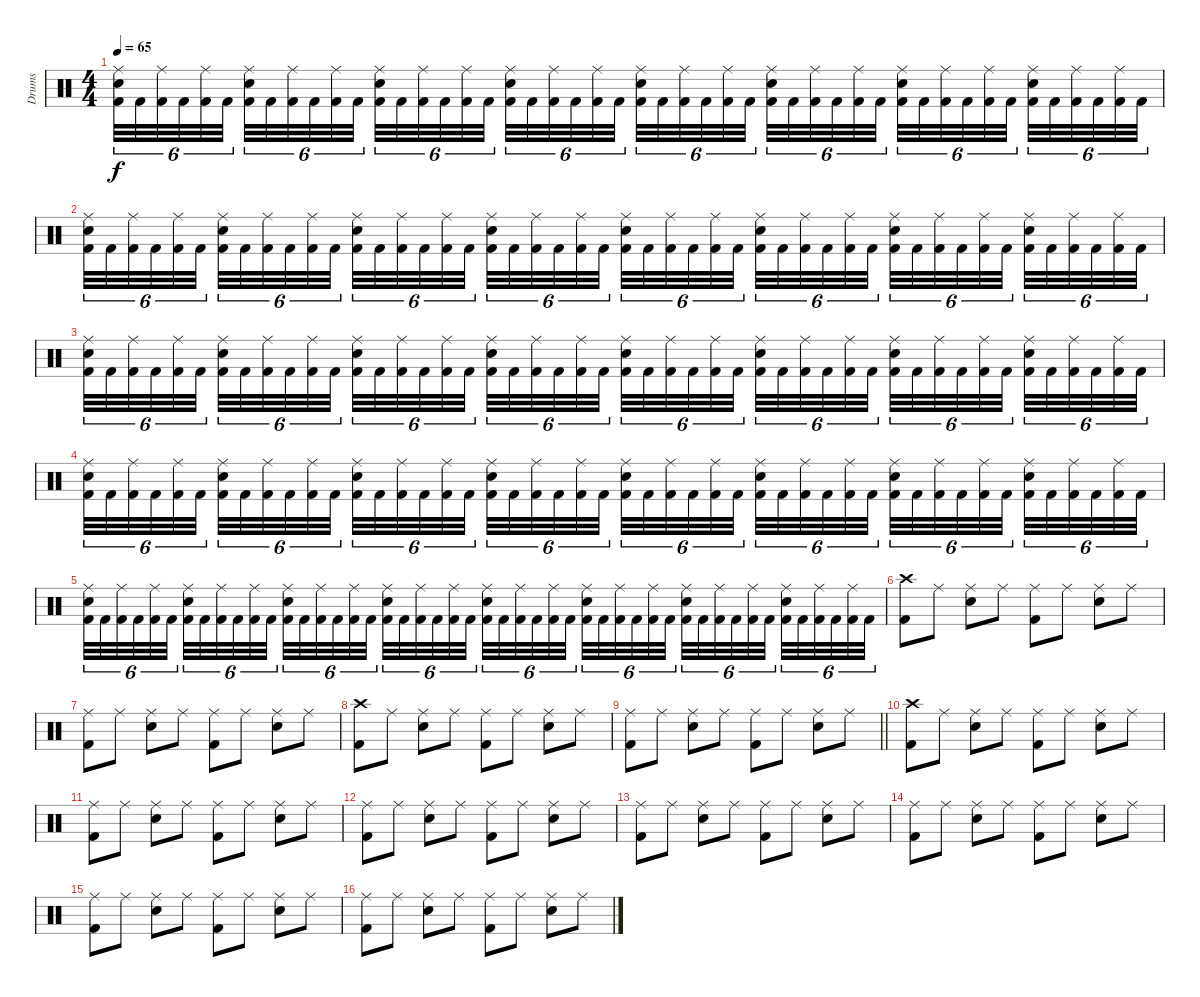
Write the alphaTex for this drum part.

\track ("Drums" "Drums") {instrument percussion}
\staff {score}
\articulation defaults
\ts (4 4)
\tempo 65
\clef neutral
\ks c
("Ride (middle)" "Electric Snare (hit)" "Kick (hit) 2").32{tu (6 4) dy f} "Kick (hit) 2".32{tu (6 4)} ("Ride (middle)" "Kick (hit) 2").32{tu (6 4)} "Kick (hit) 2".32{tu (6 4)} ("Ride (middle)" "Kick (hit) 2").32{tu (6 4)} "Kick (hit) 2".32{tu (6 4)} ("Ride (middle)" "Electric Snare (hit)" "Kick (hit) 2").32{tu (6 4)} "Kick (hit) 2".32{tu (6 4)} ("Ride (middle)" "Kick (hit) 2").32{tu (6 4)} "Kick (hit) 2".32{tu (6 4)} ("Ride (middle)" "Kick (hit) 2").32{tu (6 4)} "Kick (hit) 2".32{tu (6 4)} ("Ride (middle)" "Electric Snare (hit)" "Kick (hit) 2").32{tu (6 4)} "Kick (hit) 2".32{tu (6 4)} ("Ride (middle)" "Kick (hit) 2").32{tu (6 4)} "Kick (hit) 2".32{tu (6 4)} ("Ride (middle)" "Kick (hit) 2").32{tu (6 4)} "Kick (hit) 2".32{tu (6 4)} ("Ride (middle)" "Electric Snare (hit)" "Kick (hit) 2").32{tu (6 4)} "Kick (hit) 2".32{tu (6 4)} ("Ride (middle)" "Kick (hit) 2").32{tu (6 4)} "Kick (hit) 2".32{tu (6 4)} ("Ride (middle)" "Kick (hit) 2").32{tu (6 4)} "Kick (hit) 2".32{tu (6 4)} ("Ride (middle)" "Electric Snare (hit)" "Kick (hit) 2").32{tu (6 4)} "Kick (hit) 2".32{tu (6 4)} ("Ride (middle)" "Kick (hit) 2").32{tu (6 4)} "Kick (hit) 2".32{tu (6 4)} ("Ride (middle)" "Kick (hit) 2").32{tu (6 4)} "Kick (hit) 2".32{tu (6 4)} ("Ride (middle)" "Electric Snare (hit)" "Kick (hit) 2").32{tu (6 4)} "Kick (hit) 2".32{tu (6 4)} ("Ride (middle)" "Kick (hit) 2").32{tu (6 4)} "Kick (hit) 2".32{tu (6 4)} ("Ride (middle)" "Kick (hit) 2").32{tu (6 4)} "Kick (hit) 2".32{tu (6 4)} ("Ride (middle)" "Electric Snare (hit)" "Kick (hit) 2").32{tu (6 4)} "Kick (hit) 2".32{tu (6 4)} ("Ride (middle)" "Kick (hit) 2").32{tu (6 4)} "Kick (hit) 2".32{tu (6 4)} ("Ride (middle)" "Kick (hit) 2").32{tu (6 4)} "Kick (hit) 2".32{tu (6 4)} ("Ride (middle)" "Electric Snare (hit)" "Kick (hit) 2").32{tu (6 4)} "Kick (hit) 2".32{tu (6 4)} ("Ride (middle)" "Kick (hit) 2").32{tu (6 4)} "Kick (hit) 2".32{tu (6 4)} ("Ride (middle)" "Kick (hit) 2").32{tu (6 4)} "Kick (hit) 2".32{tu (6 4)} |
("Ride (middle)" "Electric Snare (hit)" "Kick (hit) 2").32{tu (6 4)} "Kick (hit) 2".32{tu (6 4)} ("Ride (middle)" "Kick (hit) 2").32{tu (6 4)} "Kick (hit) 2".32{tu (6 4)} ("Ride (middle)" "Kick (hit) 2").32{tu (6 4)} "Kick (hit) 2".32{tu (6 4)} ("Ride (middle)" "Electric Snare (hit)" "Kick (hit) 2").32{tu (6 4)} "Kick (hit) 2".32{tu (6 4)} ("Ride (middle)" "Kick (hit) 2").32{tu (6 4)} "Kick (hit) 2".32{tu (6 4)} ("Ride (middle)" "Kick (hit) 2").32{tu (6 4)} "Kick (hit) 2".32{tu (6 4)} ("Ride (middle)" "Electric Snare (hit)" "Kick (hit) 2").32{tu (6 4)} "Kick (hit) 2".32{tu (6 4)} ("Ride (middle)" "Kick (hit) 2").32{tu (6 4)} "Kick (hit) 2".32{tu (6 4)} ("Ride (middle)" "Kick (hit) 2").32{tu (6 4)} "Kick (hit) 2".32{tu (6 4)} ("Ride (middle)" "Electric Snare (hit)" "Kick (hit) 2").32{tu (6 4)} "Kick (hit) 2".32{tu (6 4)} ("Ride (middle)" "Kick (hit) 2").32{tu (6 4)} "Kick (hit) 2".32{tu (6 4)} ("Ride (middle)" "Kick (hit) 2").32{tu (6 4)} "Kick (hit) 2".32{tu (6 4)} ("Ride (middle)" "Electric Snare (hit)" "Kick (hit) 2").32{tu (6 4)} "Kick (hit) 2".32{tu (6 4)} ("Ride (middle)" "Kick (hit) 2").32{tu (6 4)} "Kick (hit) 2".32{tu (6 4)} ("Ride (middle)" "Kick (hit) 2").32{tu (6 4)} "Kick (hit) 2".32{tu (6 4)} ("Ride (middle)" "Electric Snare (hit)" "Kick (hit) 2").32{tu (6 4)} "Kick (hit) 2".32{tu (6 4)} ("Ride (middle)" "Kick (hit) 2").32{tu (6 4)} "Kick (hit) 2".32{tu (6 4)} ("Ride (middle)" "Kick (hit) 2").32{tu (6 4)} "Kick (hit) 2".32{tu (6 4)} ("Ride (middle)" "Electric Snare (hit)" "Kick (hit) 2").32{tu (6 4)} "Kick (hit) 2".32{tu (6 4)} ("Ride (middle)" "Kick (hit) 2").32{tu (6 4)} "Kick (hit) 2".32{tu (6 4)} ("Ride (middle)" "Kick (hit) 2").32{tu (6 4)} "Kick (hit) 2".32{tu (6 4)} ("Ride (middle)" "Electric Snare (hit)" "Kick (hit) 2").32{tu (6 4)} "Kick (hit) 2".32{tu (6 4)} ("Ride (middle)" "Kick (hit) 2").32{tu (6 4)} "Kick (hit) 2".32{tu (6 4)} ("Ride (middle)" "Kick (hit) 2").32{tu (6 4)} "Kick (hit) 2".32{tu (6 4)} |
("Ride (middle)" "Electric Snare (hit)" "Kick (hit) 2").32{tu (6 4)} "Kick (hit) 2".32{tu (6 4)} ("Ride (middle)" "Kick (hit) 2").32{tu (6 4)} "Kick (hit) 2".32{tu (6 4)} ("Ride (middle)" "Kick (hit) 2").32{tu (6 4)} "Kick (hit) 2".32{tu (6 4)} ("Ride (middle)" "Electric Snare (hit)" "Kick (hit) 2").32{tu (6 4)} "Kick (hit) 2".32{tu (6 4)} ("Ride (middle)" "Kick (hit) 2").32{tu (6 4)} "Kick (hit) 2".32{tu (6 4)} ("Ride (middle)" "Kick (hit) 2").32{tu (6 4)} "Kick (hit) 2".32{tu (6 4)} ("Ride (middle)" "Electric Snare (hit)" "Kick (hit) 2").32{tu (6 4)} "Kick (hit) 2".32{tu (6 4)} ("Ride (middle)" "Kick (hit) 2").32{tu (6 4)} "Kick (hit) 2".32{tu (6 4)} ("Ride (middle)" "Kick (hit) 2").32{tu (6 4)} "Kick (hit) 2".32{tu (6 4)} ("Ride (middle)" "Electric Snare (hit)" "Kick (hit) 2").32{tu (6 4)} "Kick (hit) 2".32{tu (6 4)} ("Ride (middle)" "Kick (hit) 2").32{tu (6 4)} "Kick (hit) 2".32{tu (6 4)} ("Ride (middle)" "Kick (hit) 2").32{tu (6 4)} "Kick (hit) 2".32{tu (6 4)} ("Ride (middle)" "Electric Snare (hit)" "Kick (hit) 2").32{tu (6 4)} "Kick (hit) 2".32{tu (6 4)} ("Ride (middle)" "Kick (hit) 2").32{tu (6 4)} "Kick (hit) 2".32{tu (6 4)} ("Ride (middle)" "Kick (hit) 2").32{tu (6 4)} "Kick (hit) 2".32{tu (6 4)} ("Ride (middle)" "Electric Snare (hit)" "Kick (hit) 2").32{tu (6 4)} "Kick (hit) 2".32{tu (6 4)} ("Ride (middle)" "Kick (hit) 2").32{tu (6 4)} "Kick (hit) 2".32{tu (6 4)} ("Ride (middle)" "Kick (hit) 2").32{tu (6 4)} "Kick (hit) 2".32{tu (6 4)} ("Ride (middle)" "Electric Snare (hit)" "Kick (hit) 2").32{tu (6 4)} "Kick (hit) 2".32{tu (6 4)} ("Ride (middle)" "Kick (hit) 2").32{tu (6 4)} "Kick (hit) 2".32{tu (6 4)} ("Ride (middle)" "Kick (hit) 2").32{tu (6 4)} "Kick (hit) 2".32{tu (6 4)} ("Ride (middle)" "Electric Snare (hit)" "Kick (hit) 2").32{tu (6 4)} "Kick (hit) 2".32{tu (6 4)} ("Ride (middle)" "Kick (hit) 2").32{tu (6 4)} "Kick (hit) 2".32{tu (6 4)} ("Ride (middle)" "Kick (hit) 2").32{tu (6 4)} "Kick (hit) 2".32{tu (6 4)} |
("Ride (middle)" "Electric Snare (hit)" "Kick (hit) 2").32{tu (6 4)} "Kick (hit) 2".32{tu (6 4)} ("Ride (middle)" "Kick (hit) 2").32{tu (6 4)} "Kick (hit) 2".32{tu (6 4)} ("Ride (middle)" "Kick (hit) 2").32{tu (6 4)} "Kick (hit) 2".32{tu (6 4)} ("Ride (middle)" "Electric Snare (hit)" "Kick (hit) 2").32{tu (6 4)} "Kick (hit) 2".32{tu (6 4)} ("Ride (middle)" "Kick (hit) 2").32{tu (6 4)} "Kick (hit) 2".32{tu (6 4)} ("Ride (middle)" "Kick (hit) 2").32{tu (6 4)} "Kick (hit) 2".32{tu (6 4)} ("Ride (middle)" "Electric Snare (hit)" "Kick (hit) 2").32{tu (6 4)} "Kick (hit) 2".32{tu (6 4)} ("Ride (middle)" "Kick (hit) 2").32{tu (6 4)} "Kick (hit) 2".32{tu (6 4)} ("Ride (middle)" "Kick (hit) 2").32{tu (6 4)} "Kick (hit) 2".32{tu (6 4)} ("Ride (middle)" "Electric Snare (hit)" "Kick (hit) 2").32{tu (6 4)} "Kick (hit) 2".32{tu (6 4)} ("Ride (middle)" "Kick (hit) 2").32{tu (6 4)} "Kick (hit) 2".32{tu (6 4)} ("Ride (middle)" "Kick (hit) 2").32{tu (6 4)} "Kick (hit) 2".32{tu (6 4)} ("Ride (middle)" "Electric Snare (hit)" "Kick (hit) 2").32{tu (6 4)} "Kick (hit) 2".32{tu (6 4)} ("Ride (middle)" "Kick (hit) 2").32{tu (6 4)} "Kick (hit) 2".32{tu (6 4)} ("Ride (middle)" "Kick (hit) 2").32{tu (6 4)} "Kick (hit) 2".32{tu (6 4)} ("Ride (middle)" "Electric Snare (hit)" "Kick (hit) 2").32{tu (6 4)} "Kick (hit) 2".32{tu (6 4)} ("Ride (middle)" "Kick (hit) 2").32{tu (6 4)} "Kick (hit) 2".32{tu (6 4)} ("Ride (middle)" "Kick (hit) 2").32{tu (6 4)} "Kick (hit) 2".32{tu (6 4)} ("Ride (middle)" "Electric Snare (hit)" "Kick (hit) 2").32{tu (6 4)} "Kick (hit) 2".32{tu (6 4)} ("Ride (middle)" "Kick (hit) 2").32{tu (6 4)} "Kick (hit) 2".32{tu (6 4)} ("Ride (middle)" "Kick (hit) 2").32{tu (6 4)} "Kick (hit) 2".32{tu (6 4)} ("Ride (middle)" "Electric Snare (hit)" "Kick (hit) 2").32{tu (6 4)} "Kick (hit) 2".32{tu (6 4)} ("Ride (middle)" "Kick (hit) 2").32{tu (6 4)} "Kick (hit) 2".32{tu (6 4)} ("Ride (middle)" "Kick (hit) 2").32{tu (6 4)} "Kick (hit) 2".32{tu (6 4)} |
("Ride (middle)" "Electric Snare (hit)" "Kick (hit) 2").32{tu (6 4)} "Kick (hit) 2".32{tu (6 4)} ("Ride (middle)" "Kick (hit) 2").32{tu (6 4)} "Kick (hit) 2".32{tu (6 4)} ("Ride (middle)" "Kick (hit) 2").32{tu (6 4)} "Kick (hit) 2".32{tu (6 4)} ("Ride (middle)" "Electric Snare (hit)" "Kick (hit) 2").32{tu (6 4)} "Kick (hit) 2".32{tu (6 4)} ("Ride (middle)" "Kick (hit) 2").32{tu (6 4)} "Kick (hit) 2".32{tu (6 4)} ("Ride (middle)" "Kick (hit) 2").32{tu (6 4)} "Kick (hit) 2".32{tu (6 4)} ("Ride (middle)" "Electric Snare (hit)" "Kick (hit) 2").32{tu (6 4)} "Kick (hit) 2".32{tu (6 4)} ("Ride (middle)" "Kick (hit) 2").32{tu (6 4)} "Kick (hit) 2".32{tu (6 4)} ("Ride (middle)" "Kick (hit) 2").32{tu (6 4)} "Kick (hit) 2".32{tu (6 4)} ("Ride (middle)" "Electric Snare (hit)" "Kick (hit) 2").32{tu (6 4)} "Kick (hit) 2".32{tu (6 4)} ("Ride (middle)" "Kick (hit) 2").32{tu (6 4)} "Kick (hit) 2".32{tu (6 4)} ("Ride (middle)" "Kick (hit) 2").32{tu (6 4)} "Kick (hit) 2".32{tu (6 4)} ("Ride (middle)" "Electric Snare (hit)" "Kick (hit) 2").32{tu (6 4)} "Kick (hit) 2".32{tu (6 4)} ("Ride (middle)" "Kick (hit) 2").32{tu (6 4)} "Kick (hit) 2".32{tu (6 4)} ("Ride (middle)" "Kick (hit) 2").32{tu (6 4)} "Kick (hit) 2".32{tu (6 4)} ("Ride (middle)" "Electric Snare (hit)" "Kick (hit) 2").32{tu (6 4)} "Kick (hit) 2".32{tu (6 4)} ("Ride (middle)" "Kick (hit) 2").32{tu (6 4)} "Kick (hit) 2".32{tu (6 4)} ("Ride (middle)" "Kick (hit) 2").32{tu (6 4)} "Kick (hit) 2".32{tu (6 4)} ("Ride (middle)" "Electric Snare (hit)" "Kick (hit) 2").32{tu (6 4)} "Kick (hit) 2".32{tu (6 4)} ("Ride (middle)" "Kick (hit) 2").32{tu (6 4)} "Kick (hit) 2".32{tu (6 4)} ("Ride (middle)" "Kick (hit) 2").32{tu (6 4)} "Kick (hit) 2".32{tu (6 4)} ("Ride (middle)" "Electric Snare (hit)" "Kick (hit) 2").32{tu (6 4)} "Kick (hit) 2".32{tu (6 4)} ("Ride (middle)" "Kick (hit) 2").32{tu (6 4)} "Kick (hit) 2".32{tu (6 4)} ("Ride (middle)" "Kick (hit) 2").32{tu (6 4)} "Kick (hit) 2".32{tu (6 4)} |
("Crash high (hit)" "Kick (hit) 2").8 "Ride (middle)".8 ("Ride (middle)" "Electric Snare (hit)").8 "Ride (middle)".8 ("Ride (middle)" "Kick (hit) 2").8 "Ride (middle)".8 ("Ride (middle)" "Electric Snare (hit)").8 "Ride (middle)".8 |
("Ride (middle)" "Kick (hit) 2").8 "Ride (middle)".8 ("Ride (middle)" "Electric Snare (hit)").8 "Ride (middle)".8 ("Ride (middle)" "Kick (hit) 2").8 "Ride (middle)".8 ("Ride (middle)" "Electric Snare (hit)").8 "Ride (middle)".8 |
("Crash high (hit)" "Kick (hit) 2").8 "Ride (middle)".8 ("Ride (middle)" "Electric Snare (hit)").8 "Ride (middle)".8 ("Ride (middle)" "Kick (hit) 2").8 "Ride (middle)".8 ("Ride (middle)" "Electric Snare (hit)").8 "Ride (middle)".8 |
\barLineRight lightlight
("Ride (middle)" "Kick (hit) 2").8 "Ride (middle)".8 ("Ride (middle)" "Electric Snare (hit)").8 "Ride (middle)".8 ("Ride (middle)" "Kick (hit) 2").8 "Ride (middle)".8 ("Ride (middle)" "Electric Snare (hit)").8 "Ride (middle)".8 |
("Crash high (hit)" "Kick (hit) 2").8 "Ride (middle)".8 ("Ride (middle)" "Electric Snare (hit)").8 "Ride (middle)".8 ("Ride (middle)" "Kick (hit) 2").8 "Ride (middle)".8 ("Ride (middle)" "Electric Snare (hit)").8 "Ride (middle)".8 |
("Ride (middle)" "Kick (hit) 2").8 "Ride (middle)".8 ("Ride (middle)" "Electric Snare (hit)").8 "Ride (middle)".8 ("Ride (middle)" "Kick (hit) 2").8 "Ride (middle)".8 ("Ride (middle)" "Electric Snare (hit)").8 "Ride (middle)".8 |
("Ride (middle)" "Kick (hit) 2").8 "Ride (middle)".8 ("Ride (middle)" "Electric Snare (hit)").8 "Ride (middle)".8 ("Ride (middle)" "Kick (hit) 2").8 "Ride (middle)".8 ("Ride (middle)" "Electric Snare (hit)").8 "Ride (middle)".8 |
("Ride (middle)" "Kick (hit) 2").8 "Ride (middle)".8 ("Ride (middle)" "Electric Snare (hit)").8 "Ride (middle)".8 ("Ride (middle)" "Kick (hit) 2").8 "Ride (middle)".8 ("Ride (middle)" "Electric Snare (hit)").8 "Ride (middle)".8 |
("Ride (middle)" "Kick (hit) 2").8 "Ride (middle)".8 ("Ride (middle)" "Electric Snare (hit)").8 "Ride (middle)".8 ("Ride (middle)" "Kick (hit) 2").8 "Ride (middle)".8 ("Ride (middle)" "Electric Snare (hit)").8 "Ride (middle)".8 |
("Ride (middle)" "Kick (hit) 2").8 "Ride (middle)".8 ("Ride (middle)" "Electric Snare (hit)").8 "Ride (middle)".8 ("Ride (middle)" "Kick (hit) 2").8 "Ride (middle)".8 ("Ride (middle)" "Electric Snare (hit)").8 "Ride (middle)".8 |
("Ride (middle)" "Kick (hit) 2").8 "Ride (middle)".8 ("Ride (middle)" "Electric Snare (hit)").8 "Ride (middle)".8 ("Ride (middle)" "Kick (hit) 2").8 "Ride (middle)".8 ("Ride (middle)" "Electric Snare (hit)").8 "Ride (middle)".8
